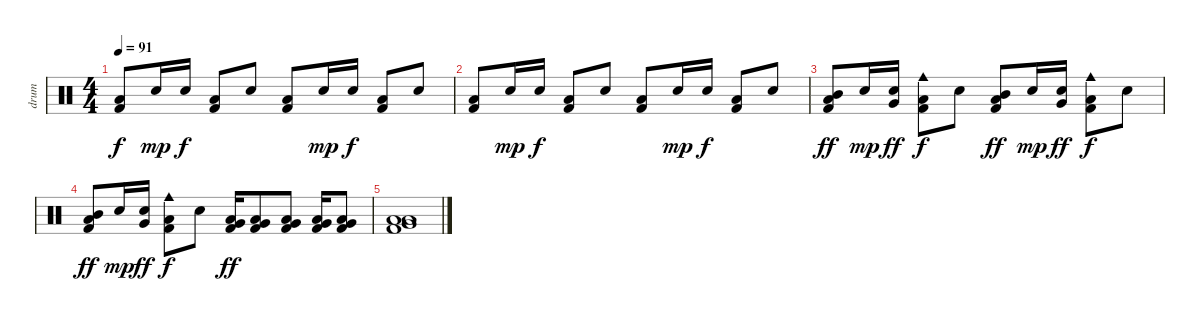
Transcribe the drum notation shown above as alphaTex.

\track ("drum" "drum") {instrument percussion}
\staff {score}
\articulation defaults
\ts (4 4)
\tempo 91
\clef neutral
\ks c
("Low Floor Tom (hit)" "Kick (hit) 2").8{dy f} "Electric Snare (hit)".16{dy mp} "Electric Snare (hit)".16{dy f} ("Low Floor Tom (hit)" "Kick (hit) 2").8 "Electric Snare (hit)".8 ("Low Floor Tom (hit)" "Kick (hit) 2").8 "Electric Snare (hit)".16{dy mp} "Electric Snare (hit)".16{dy f} ("Low Floor Tom (hit)" "Kick (hit) 2").8 "Electric Snare (hit)".8 |
("Low Floor Tom (hit)" "Kick (hit) 2").8 "Electric Snare (hit)".16{dy mp} "Electric Snare (hit)".16{dy f} ("Low Floor Tom (hit)" "Kick (hit) 2").8 "Electric Snare (hit)".8 ("Low Floor Tom (hit)" "Kick (hit) 2").8 "Electric Snare (hit)".16{dy mp} "Electric Snare (hit)".16{dy f} ("Low Floor Tom (hit)" "Kick (hit) 2").8 "Electric Snare (hit)".8 |
("Mid Tom (hit)" "Low Floor Tom (hit)" "Kick (hit) 2").8{dy ff} "Electric Snare (hit)".16{dy mp} ("Very Low Tom (hit)" "Electric Snare (hit)").16{dy ff} ("Cowbell medium (hit)" "Low Floor Tom (hit)" "Kick (hit) 2").8{dy f} "Electric Snare (hit)".8 ("Mid Tom (hit)" "Low Floor Tom (hit)" "Kick (hit) 2").8{dy ff} "Electric Snare (hit)".16{dy mp} ("Very Low Tom (hit)" "Electric Snare (hit)").16{dy ff} ("Cowbell medium (hit)" "Low Floor Tom (hit)" "Kick (hit) 2").8{dy f} "Electric Snare (hit)".8 |
("Mid Tom (hit)" "Low Floor Tom (hit)" "Kick (hit) 2").8{dy ff} "Electric Snare (hit)".16{dy mp} ("Very Low Tom (hit)" "Electric Snare (hit)").16{dy ff} ("Cowbell medium (hit)" "Low Floor Tom (hit)" "Kick (hit) 2").8{dy f} "Electric Snare (hit)".8 ("Very Low Tom (hit)" "Low Floor Tom (hit)" "Kick (hit) 2").16{dy ff} ("Very Low Tom (hit)" "Low Floor Tom (hit)" "Kick (hit) 2").8 ("Very Low Tom (hit)" "Low Floor Tom (hit)" "Kick (hit) 2").8 ("Very Low Tom (hit)" "Low Floor Tom (hit)" "Kick (hit) 2").16 ("Very Low Tom (hit)" "Low Floor Tom (hit)" "Kick (hit) 2").8 |
("Low Tom (hit)" "Very Low Tom (hit)" "Low Floor Tom (hit)" "Kick (hit) 2").1
